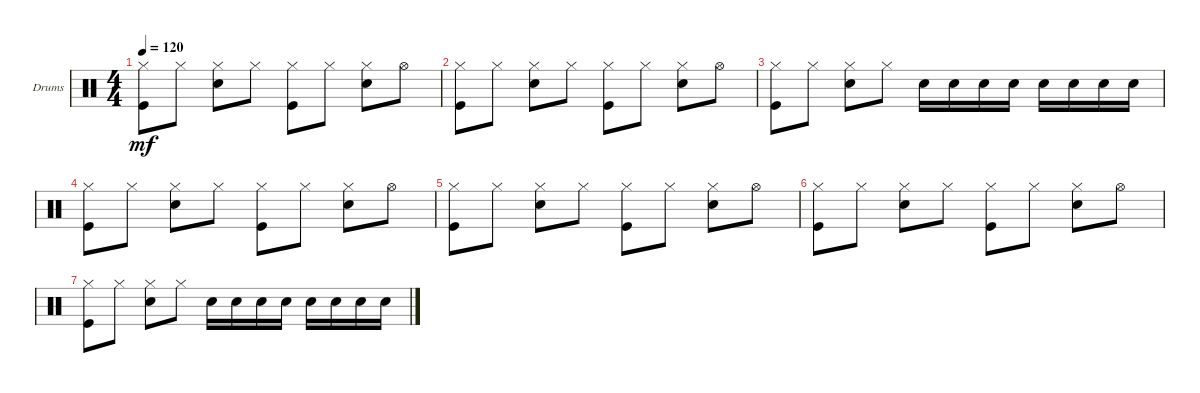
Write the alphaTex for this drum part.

\bracketExtendMode groupsimilarinstruments
\firstSystemTrackNameOrientation horizontal
\otherSystemsTrackNameOrientation horizontal
\track ("Drumkit" "Drums") {instrument percussion}
\staff {score}
\articulation defaults
\ts (4 4)
\tempo 120
\clef neutral
\ks c
("Kick (hit)" "Hi-Hat (closed)").8{dy mf} "Hi-Hat (closed)".8 ("Snare (hit) 2" "Hi-Hat (closed)").8 "Hi-Hat (closed)".8 ("Kick (hit)" "Hi-Hat (closed)").8 "Hi-Hat (closed)".8 ("Snare (hit) 2" "Hi-Hat (closed)").8 "Hi-Hat (open)".8 |
("Kick (hit)" "Hi-Hat (closed)").8 "Hi-Hat (closed)".8 ("Snare (hit) 2" "Hi-Hat (closed)").8 "Hi-Hat (closed)".8 ("Kick (hit)" "Hi-Hat (closed)").8 "Hi-Hat (closed)".8 ("Snare (hit) 2" "Hi-Hat (closed)").8 "Hi-Hat (open)".8 |
("Kick (hit)" "Hi-Hat (closed)").8 "Hi-Hat (closed)".8 ("Snare (hit) 2" "Hi-Hat (closed)").8 "Hi-Hat (closed)".8 "Snare (hit) 2".16 "Snare (hit) 2".16 "Snare (hit) 2".16 "Snare (hit) 2".16 "Snare (hit) 2".16 "Snare (hit) 2".16 "Snare (hit) 2".16 "Snare (hit) 2".16 |
("Kick (hit)" "Hi-Hat (closed)").8 "Hi-Hat (closed)".8 ("Snare (hit) 2" "Hi-Hat (closed)").8 "Hi-Hat (closed)".8 ("Kick (hit)" "Hi-Hat (closed)").8 "Hi-Hat (closed)".8 ("Snare (hit) 2" "Hi-Hat (closed)").8 "Hi-Hat (open)".8 |
("Kick (hit)" "Hi-Hat (closed)").8 "Hi-Hat (closed)".8 ("Snare (hit) 2" "Hi-Hat (closed)").8 "Hi-Hat (closed)".8 ("Kick (hit)" "Hi-Hat (closed)").8 "Hi-Hat (closed)".8 ("Snare (hit) 2" "Hi-Hat (closed)").8 "Hi-Hat (open)".8 |
("Kick (hit)" "Hi-Hat (closed)").8 "Hi-Hat (closed)".8 ("Snare (hit) 2" "Hi-Hat (closed)").8 "Hi-Hat (closed)".8 ("Kick (hit)" "Hi-Hat (closed)").8 "Hi-Hat (closed)".8 ("Snare (hit) 2" "Hi-Hat (closed)").8 "Hi-Hat (open)".8 |
("Kick (hit)" "Hi-Hat (closed)").8 "Hi-Hat (closed)".8 ("Snare (hit) 2" "Hi-Hat (closed)").8 "Hi-Hat (closed)".8 "Snare (hit) 2".16 "Snare (hit) 2".16 "Snare (hit) 2".16 "Snare (hit) 2".16 "Snare (hit) 2".16 "Snare (hit) 2".16 "Snare (hit) 2".16 "Snare (hit) 2".16
